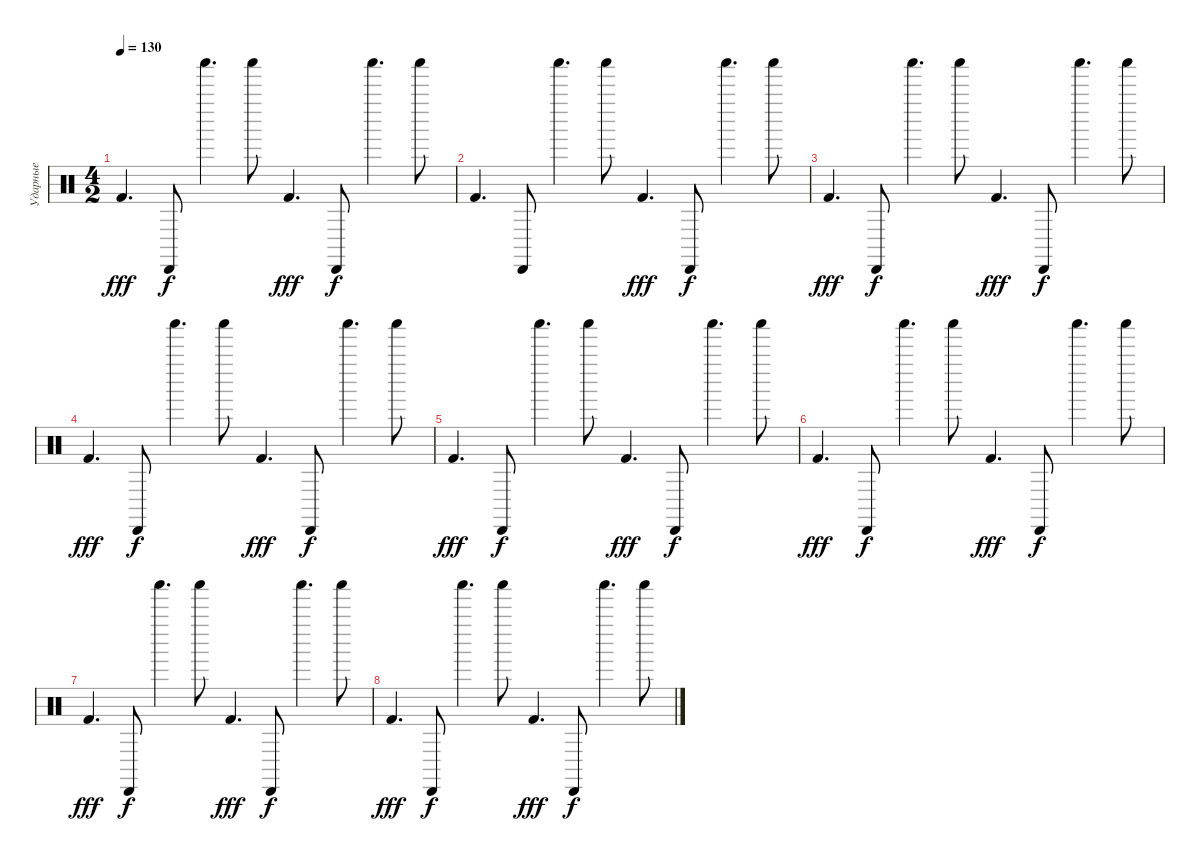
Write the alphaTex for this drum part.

\track ("Ударные" "Ударные") {instrument percussion}
\staff {score}
\articulation defaults
\ts (4 2)
\tempo 130
\clef neutral
\ks c "Kick (hit) 2".4{d dy fff} "Cabasa (hit)".8{dy f} "Shaker (hit)".4{d} "Shaker (hit)".8 "Kick (hit) 2".4{d dy fff} "Cabasa (hit)".8{dy f} "Shaker (hit)".4{d} "Shaker (hit)".8
|
"Kick (hit) 2".4{d} "Cabasa (hit)".8 "Shaker (hit)".4{d} "Shaker (hit)".8 "Kick (hit) 2".4{d dy fff} "Cabasa (hit)".8{dy f} "Shaker (hit)".4{d} "Shaker (hit)".8 |
"Kick (hit) 2".4{d dy fff} "Cabasa (hit)".8{dy f} "Shaker (hit)".4{d} "Shaker (hit)".8 "Kick (hit) 2".4{d dy fff} "Cabasa (hit)".8{dy f} "Shaker (hit)".4{d} "Shaker (hit)".8 |
"Kick (hit) 2".4{d dy fff} "Cabasa (hit)".8{dy f} "Shaker (hit)".4{d} "Shaker (hit)".8 "Kick (hit) 2".4{d dy fff} "Cabasa (hit)".8{dy f} "Shaker (hit)".4{d} "Shaker (hit)".8 |
"Kick (hit) 2".4{d dy fff} "Cabasa (hit)".8{dy f} "Shaker (hit)".4{d} "Shaker (hit)".8 "Kick (hit) 2".4{d dy fff} "Cabasa (hit)".8{dy f} "Shaker (hit)".4{d} "Shaker (hit)".8 |
"Kick (hit) 2".4{d dy fff} "Cabasa (hit)".8{dy f} "Shaker (hit)".4{d} "Shaker (hit)".8 "Kick (hit) 2".4{d dy fff} "Cabasa (hit)".8{dy f} "Shaker (hit)".4{d} "Shaker (hit)".8 |
"Kick (hit) 2".4{d dy fff} "Cabasa (hit)".8{dy f} "Shaker (hit)".4{d} "Shaker (hit)".8 "Kick (hit) 2".4{d dy fff} "Cabasa (hit)".8{dy f} "Shaker (hit)".4{d} "Shaker (hit)".8 |
"Kick (hit) 2".4{d dy fff} "Cabasa (hit)".8{dy f} "Shaker (hit)".4{d} "Shaker (hit)".8 "Kick (hit) 2".4{d dy fff} "Cabasa (hit)".8{dy f} "Shaker (hit)".4{d} "Shaker (hit)".8
